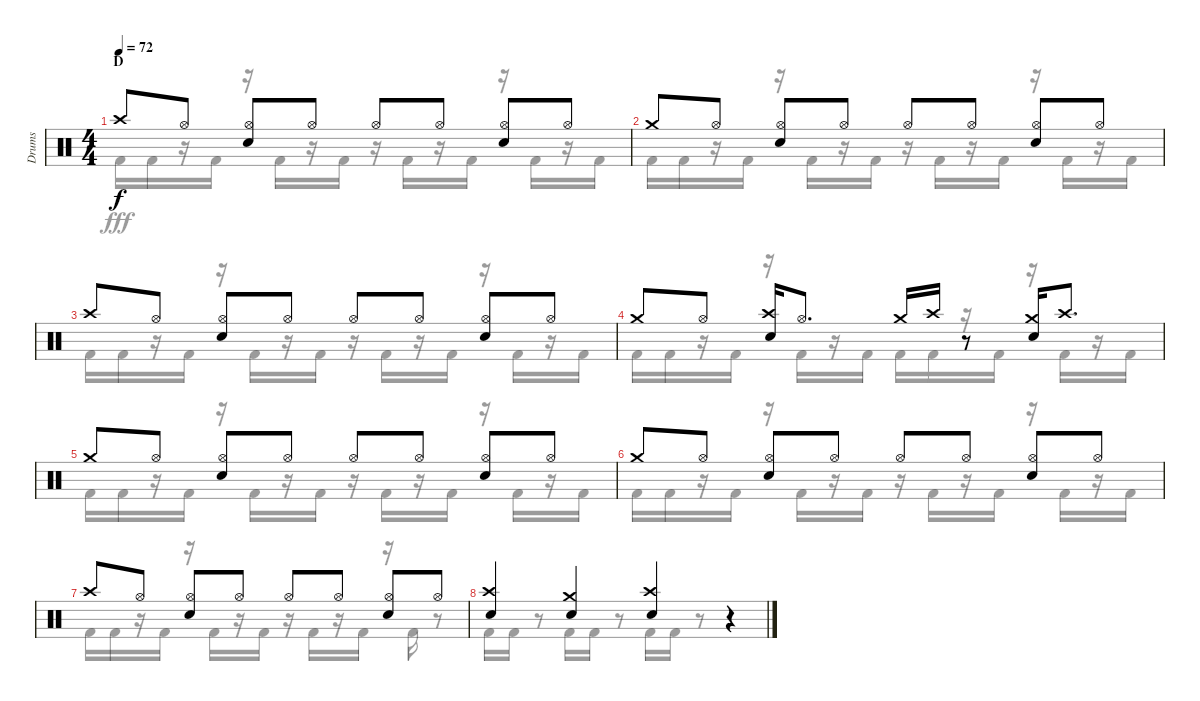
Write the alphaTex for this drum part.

\track ("Drums" "Drums") {instrument percussion}
\staff {score}
\articulation defaults
\voice
\ts (4 4)
\section ("" "D")
\tempo 72
\clef neutral
\ks aminor "Crash high (hit)".8{dy f} "Hi-Hat (open)".8
("Hi-Hat (open)" "Snare (hit) 2").8 "Hi-Hat (open)".8 "Hi-Hat (open)".8 "Hi-Hat (open)".8 ("Hi-Hat (open)" "Snare (hit) 2").8 "Hi-Hat (open)".8 |
"Crash medium (hit)".8 "Hi-Hat (open)".8 ("Hi-Hat (open)" "Snare (hit) 2").8 "Hi-Hat (open)".8 "Hi-Hat (open)".8 "Hi-Hat (open)".8 ("Hi-Hat (open)" "Snare (hit) 2").8 "Hi-Hat (open)".8 |
"Crash high (hit)".8 "Hi-Hat (open)".8 ("Hi-Hat (open)" "Snare (hit) 2").8 "Hi-Hat (open)".8 "Hi-Hat (open)".8 "Hi-Hat (open)".8 ("Hi-Hat (open)" "Snare (hit) 2").8 "Hi-Hat (open)".8 |
"Crash medium (hit)".8 "Hi-Hat (open)".8 ("Crash high (hit)" "Snare (hit) 2").16 "Hi-Hat (open)".8{d} "Crash medium (hit)".16 "Crash high (hit)".16 r.8 ("Crash medium (hit)" "Snare (hit) 2").16 "Crash high (hit)".8{d} |
"Crash medium (hit)".8 "Hi-Hat (open)".8 ("Hi-Hat (open)" "Snare (hit) 2").8 "Hi-Hat (open)".8 "Hi-Hat (open)".8 "Hi-Hat (open)".8 ("Hi-Hat (open)" "Snare (hit) 2").8 "Hi-Hat (open)".8 |
"Crash medium (hit)".8 "Hi-Hat (open)".8 ("Hi-Hat (open)" "Snare (hit) 2").8 "Hi-Hat (open)".8 "Hi-Hat (open)".8 "Hi-Hat (open)".8 ("Hi-Hat (open)" "Snare (hit) 2").8 "Hi-Hat (open)".8 |
"Crash high (hit)".8 "Hi-Hat (open)".8 ("Hi-Hat (open)" "Snare (hit) 2").8 "Hi-Hat (open)".8 "Hi-Hat (open)".8 "Hi-Hat (open)".8 ("Hi-Hat (open)" "Snare (hit) 2").8 "Hi-Hat (open)".8 |
("Crash high (hit)" "Snare (hit) 2").4 ("Crash medium (hit)" "Snare (hit) 2").4 ("Crash high (hit)" "Snare (hit) 2").4 r.4
\voice
\clef neutral
\ottava regular
\simile none
\ks aminor "Kick (hit) 2".16{dy fff} "Kick (hit) 2".16
r.16 "Kick (hit) 2".16 r.16 "Kick (hit) 2".16 r.16 "Kick (hit) 2".16 r.16 "Kick (hit) 2".16 r.16 "Kick (hit) 2".16 r.16 "Kick (hit) 2".16 r.16 "Kick (hit) 2".16 |
"Kick (hit) 2".16 "Kick (hit) 2".16 r.16 "Kick (hit) 2".16 r.16 "Kick (hit) 2".16 r.16 "Kick (hit) 2".16 r.16 "Kick (hit) 2".16 r.16 "Kick (hit) 2".16 r.16 "Kick (hit) 2".16 r.16 "Kick (hit) 2".16 |
"Kick (hit) 2".16 "Kick (hit) 2".16 r.16 "Kick (hit) 2".16 r.16 "Kick (hit) 2".16 r.16 "Kick (hit) 2".16 r.16 "Kick (hit) 2".16 r.16 "Kick (hit) 2".16 r.16 "Kick (hit) 2".16 r.16 "Kick (hit) 2".16 |
"Kick (hit) 2".16 "Kick (hit) 2".16 r.16 "Kick (hit) 2".16 r.16 "Kick (hit) 2".16 r.16 "Kick (hit) 2".16 "Kick (hit) 2".16 "Kick (hit) 2".16 r.16 "Kick (hit) 2".16 r.16 "Kick (hit) 2".16 r.16 "Kick (hit) 2".16 |
"Kick (hit) 2".16 "Kick (hit) 2".16 r.16 "Kick (hit) 2".16 r.16 "Kick (hit) 2".16 r.16 "Kick (hit) 2".16 r.16 "Kick (hit) 2".16 r.16 "Kick (hit) 2".16 r.16 "Kick (hit) 2".16 r.16 "Kick (hit) 2".16 |
"Kick (hit) 2".16 "Kick (hit) 2".16 r.16 "Kick (hit) 2".16 r.16 "Kick (hit) 2".16 r.16 "Kick (hit) 2".16 r.16 "Kick (hit) 2".16 r.16 "Kick (hit) 2".16 r.16 "Kick (hit) 2".16 r.16 "Kick (hit) 2".16 |
"Kick (hit) 2".16 "Kick (hit) 2".16 r.16 "Kick (hit) 2".16 r.16 "Kick (hit) 2".16 r.16 "Kick (hit) 2".16 r.16 "Kick (hit) 2".16 r.16 "Kick (hit) 2".16 r.16 "Kick (hit) 2".16 r.8 |
"Kick (hit) 2".16 "Kick (hit) 2".16 r.8 "Kick (hit) 2".16 "Kick (hit) 2".16 r.8 "Kick (hit) 2".16 "Kick (hit) 2".16 r.8 r.4
